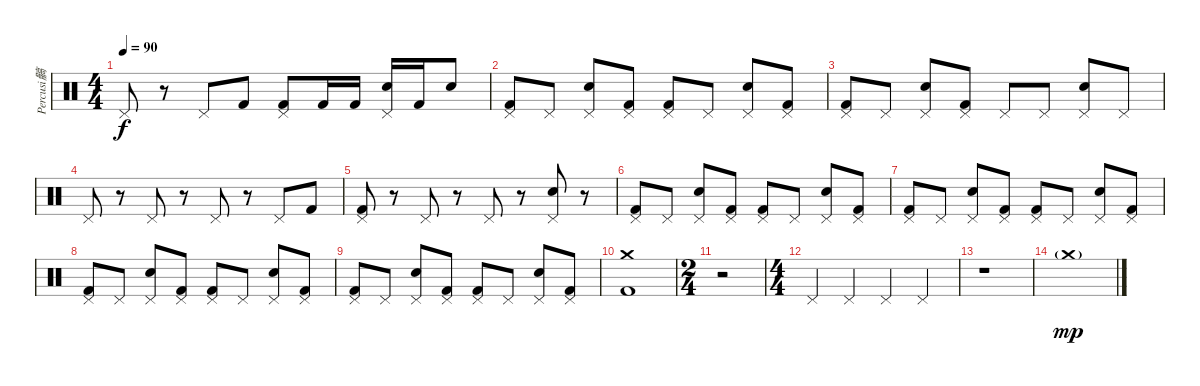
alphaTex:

\track ("Percusi髇" "Percusi髇") {instrument percussion}
\staff {score}
\articulation defaults
\ts (4 4)
\tempo 90
\clef neutral
\ks c "Pedal Hi-Hat (hit)".8{dy f}
r.8 "Pedal Hi-Hat (hit)".8 "Kick (hit) 2".8 ("Pedal Hi-Hat (hit)" "Kick (hit) 2").8 "Kick (hit) 2".16 "Kick (hit) 2".16 ("Pedal Hi-Hat (hit)" "Snare (hit) 2").16 "Kick (hit) 2".16 "Snare (hit) 2".8 |
("Pedal Hi-Hat (hit)" "Kick (hit) 2").8 "Pedal Hi-Hat (hit)".8 ("Pedal Hi-Hat (hit)" "Snare (hit) 2").8 ("Pedal Hi-Hat (hit)" "Kick (hit) 2").8 ("Pedal Hi-Hat (hit)" "Kick (hit) 2").8 "Pedal Hi-Hat (hit)".8 ("Pedal Hi-Hat (hit)" "Snare (hit) 2").8 ("Pedal Hi-Hat (hit)" "Kick (hit) 2").8 |
("Pedal Hi-Hat (hit)" "Kick (hit) 2").8 "Pedal Hi-Hat (hit)".8 ("Pedal Hi-Hat (hit)" "Snare (hit) 2").8 ("Pedal Hi-Hat (hit)" "Kick (hit) 2").8 "Pedal Hi-Hat (hit)".8 "Pedal Hi-Hat (hit)".8 ("Pedal Hi-Hat (hit)" "Snare (hit) 2").8 "Pedal Hi-Hat (hit)".8 |
"Pedal Hi-Hat (hit)".8 r.8 "Pedal Hi-Hat (hit)".8 r.8 "Pedal Hi-Hat (hit)".8 r.8 "Pedal Hi-Hat (hit)".8 "Kick (hit) 2".8 |
("Pedal Hi-Hat (hit)" "Kick (hit) 2").8 r.8 "Pedal Hi-Hat (hit)".8 r.8 "Pedal Hi-Hat (hit)".8 r.8 ("Pedal Hi-Hat (hit)" "Snare (hit) 2").8 r.8 |
("Pedal Hi-Hat (hit)" "Kick (hit) 2").8 "Pedal Hi-Hat (hit)".8 ("Pedal Hi-Hat (hit)" "Snare (hit) 2").8 ("Pedal Hi-Hat (hit)" "Kick (hit) 2").8 ("Pedal Hi-Hat (hit)" "Kick (hit) 2").8 "Pedal Hi-Hat (hit)".8 ("Pedal Hi-Hat (hit)" "Snare (hit) 2").8 ("Pedal Hi-Hat (hit)" "Kick (hit) 2").8 |
("Pedal Hi-Hat (hit)" "Kick (hit) 2").8 "Pedal Hi-Hat (hit)".8 ("Pedal Hi-Hat (hit)" "Snare (hit) 2").8 ("Pedal Hi-Hat (hit)" "Kick (hit) 2").8 ("Pedal Hi-Hat (hit)" "Kick (hit) 2").8 "Pedal Hi-Hat (hit)".8 ("Pedal Hi-Hat (hit)" "Snare (hit) 2").8 ("Pedal Hi-Hat (hit)" "Kick (hit) 2").8 |
("Pedal Hi-Hat (hit)" "Kick (hit) 2").8 "Pedal Hi-Hat (hit)".8 ("Pedal Hi-Hat (hit)" "Snare (hit) 2").8 ("Pedal Hi-Hat (hit)" "Kick (hit) 2").8 ("Pedal Hi-Hat (hit)" "Kick (hit) 2").8 "Pedal Hi-Hat (hit)".8 ("Pedal Hi-Hat (hit)" "Snare (hit) 2").8 ("Pedal Hi-Hat (hit)" "Kick (hit) 2").8 |
("Pedal Hi-Hat (hit)" "Kick (hit) 2").8 "Pedal Hi-Hat (hit)".8 ("Pedal Hi-Hat (hit)" "Snare (hit) 2").8 ("Pedal Hi-Hat (hit)" "Kick (hit) 2").8 ("Pedal Hi-Hat (hit)" "Kick (hit) 2").8 "Pedal Hi-Hat (hit)".8 ("Pedal Hi-Hat (hit)" "Snare (hit) 2").8 ("Pedal Hi-Hat (hit)" "Kick (hit) 2").8 |
("Crash medium (hit)" "Kick (hit) 2").1 |
\ts (2 4)
r.2 |
\ts (4 4)
"Pedal Hi-Hat (hit)".4 "Pedal Hi-Hat (hit)".4 "Pedal Hi-Hat (hit)".4 "Pedal Hi-Hat (hit)".4 |
r.1 |
"Crash medium (hit)"{g}.1{dy mp}
